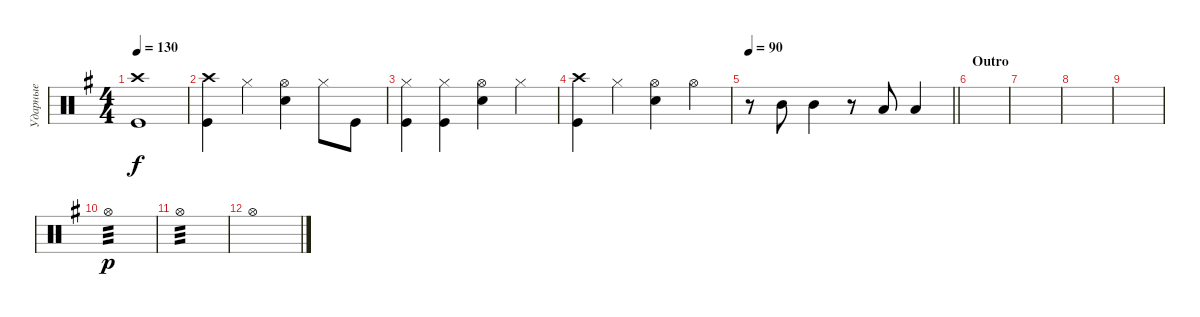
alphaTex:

\track ("Ударные" "Ударные") {instrument percussion}
\staff {score}
\articulation defaults
\ts (4 4)
\tempo 130
\clef neutral
\ks eminor
("Kick (hit)" "Crash high (hit)").1{dy f} |
("Kick (hit)" "Crash high (hit)").4 "Hi-Hat (closed)".4 ("Hi-Hat (open)" "Snare (hit) 2").4 "Hi-Hat (closed)".8 "Kick (hit)".8 |
("Hi-Hat (closed)" "Kick (hit)").4 ("Hi-Hat (closed)" "Kick (hit)").4 ("Hi-Hat (open)" "Snare (hit) 2").4 "Hi-Hat (closed)".4 |
("Crash high (hit)" "Kick (hit)").4 "Hi-Hat (closed)".4 ("Hi-Hat (open)" "Snare (hit) 2").4 "Hi-Hat (open)".4 |
\tempo 90
\barLineRight lightlight
r.8 "Mid Tom (hit)".8 "Mid Tom (hit)".4 r.8 "Low Tom (hit)".8 "Low Tom (hit)".4 |
\section ("" "Outro")
|
|
|
|
"Hi-Hat (open)".1{tp 3 dy p} |
"Hi-Hat (open)".1{tp 3} |
"Hi-Hat (open)".1
